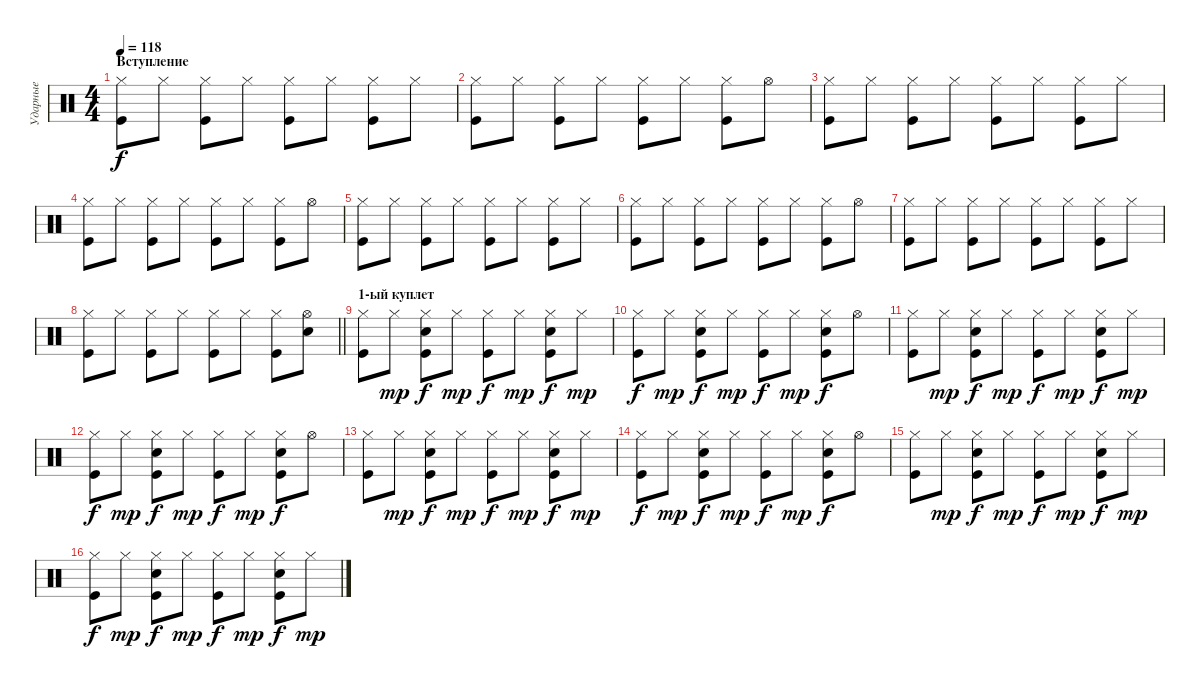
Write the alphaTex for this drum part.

\track ("Ударные" "Ударные") {instrument percussion}
\staff {score}
\articulation defaults
\ts (4 4)
\section ("" "Вступление")
\tempo 118
\clef neutral
\ks c
("Hi-Hat (closed)" "Kick (hit)").8{dy f} "Hi-Hat (closed)".8 ("Hi-Hat (closed)" "Kick (hit)").8 "Hi-Hat (closed)".8 ("Hi-Hat (closed)" "Kick (hit)").8 "Hi-Hat (closed)".8 ("Hi-Hat (closed)" "Kick (hit)").8 "Hi-Hat (closed)".8 |
("Hi-Hat (closed)" "Kick (hit)").8 "Hi-Hat (closed)".8 ("Hi-Hat (closed)" "Kick (hit)").8 "Hi-Hat (closed)".8 ("Hi-Hat (closed)" "Kick (hit)").8 "Hi-Hat (closed)".8 ("Hi-Hat (closed)" "Kick (hit)").8 "Hi-Hat (open)".8 |
("Hi-Hat (closed)" "Kick (hit)").8 "Hi-Hat (closed)".8 ("Hi-Hat (closed)" "Kick (hit)").8 "Hi-Hat (closed)".8 ("Hi-Hat (closed)" "Kick (hit)").8 "Hi-Hat (closed)".8 ("Hi-Hat (closed)" "Kick (hit)").8 "Hi-Hat (closed)".8 |
("Hi-Hat (closed)" "Kick (hit)").8 "Hi-Hat (closed)".8 ("Hi-Hat (closed)" "Kick (hit)").8 "Hi-Hat (closed)".8 ("Hi-Hat (closed)" "Kick (hit)").8 "Hi-Hat (closed)".8 ("Hi-Hat (closed)" "Kick (hit)").8 "Hi-Hat (open)".8 |
("Hi-Hat (closed)" "Kick (hit)").8 "Hi-Hat (closed)".8 ("Hi-Hat (closed)" "Kick (hit)").8 "Hi-Hat (closed)".8 ("Hi-Hat (closed)" "Kick (hit)").8 "Hi-Hat (closed)".8 ("Hi-Hat (closed)" "Kick (hit)").8 "Hi-Hat (closed)".8 |
("Hi-Hat (closed)" "Kick (hit)").8 "Hi-Hat (closed)".8 ("Hi-Hat (closed)" "Kick (hit)").8 "Hi-Hat (closed)".8 ("Hi-Hat (closed)" "Kick (hit)").8 "Hi-Hat (closed)".8 ("Hi-Hat (closed)" "Kick (hit)").8 "Hi-Hat (open)".8 |
("Hi-Hat (closed)" "Kick (hit)").8 "Hi-Hat (closed)".8 ("Hi-Hat (closed)" "Kick (hit)").8 "Hi-Hat (closed)".8 ("Hi-Hat (closed)" "Kick (hit)").8 "Hi-Hat (closed)".8 ("Hi-Hat (closed)" "Kick (hit)").8 "Hi-Hat (closed)".8 |
\barLineRight lightlight
("Hi-Hat (closed)" "Kick (hit)").8 "Hi-Hat (closed)".8 ("Hi-Hat (closed)" "Kick (hit)").8 "Hi-Hat (closed)".8 ("Hi-Hat (closed)" "Kick (hit)").8 "Hi-Hat (closed)".8 ("Hi-Hat (closed)" "Kick (hit)").8 ("Hi-Hat (open)" "Electric Snare (hit)").8 |
\section ("" "1-ый куплет")
("Hi-Hat (closed)" "Kick (hit)").8 "Hi-Hat (closed)".8{dy mp} ("Hi-Hat (closed)" "Kick (hit)" "Electric Snare (hit)").8{dy f} "Hi-Hat (closed)".8{dy mp} ("Hi-Hat (closed)" "Kick (hit)").8{dy f} "Hi-Hat (closed)".8{dy mp} ("Hi-Hat (closed)" "Kick (hit)" "Electric Snare (hit)").8{dy f} "Hi-Hat (closed)".8{dy mp} |
("Hi-Hat (closed)" "Kick (hit)").8{dy f} "Hi-Hat (closed)".8{dy mp} ("Hi-Hat (closed)" "Kick (hit)" "Electric Snare (hit)").8{dy f} "Hi-Hat (closed)".8{dy mp} ("Hi-Hat (closed)" "Kick (hit)").8{dy f} "Hi-Hat (closed)".8{dy mp} ("Hi-Hat (closed)" "Kick (hit)" "Electric Snare (hit)").8{dy f} "Hi-Hat (open)".8 |
("Hi-Hat (closed)" "Kick (hit)").8 "Hi-Hat (closed)".8{dy mp} ("Hi-Hat (closed)" "Kick (hit)" "Electric Snare (hit)").8{dy f} "Hi-Hat (closed)".8{dy mp} ("Hi-Hat (closed)" "Kick (hit)").8{dy f} "Hi-Hat (closed)".8{dy mp} ("Hi-Hat (closed)" "Kick (hit)" "Electric Snare (hit)").8{dy f} "Hi-Hat (closed)".8{dy mp} |
("Hi-Hat (closed)" "Kick (hit)").8{dy f} "Hi-Hat (closed)".8{dy mp} ("Hi-Hat (closed)" "Kick (hit)" "Electric Snare (hit)").8{dy f} "Hi-Hat (closed)".8{dy mp} ("Hi-Hat (closed)" "Kick (hit)").8{dy f} "Hi-Hat (closed)".8{dy mp} ("Hi-Hat (closed)" "Kick (hit)" "Electric Snare (hit)").8{dy f} "Hi-Hat (open)".8 |
("Hi-Hat (closed)" "Kick (hit)").8 "Hi-Hat (closed)".8{dy mp} ("Hi-Hat (closed)" "Kick (hit)" "Electric Snare (hit)").8{dy f} "Hi-Hat (closed)".8{dy mp} ("Hi-Hat (closed)" "Kick (hit)").8{dy f} "Hi-Hat (closed)".8{dy mp} ("Hi-Hat (closed)" "Kick (hit)" "Electric Snare (hit)").8{dy f} "Hi-Hat (closed)".8{dy mp} |
("Hi-Hat (closed)" "Kick (hit)").8{dy f} "Hi-Hat (closed)".8{dy mp} ("Hi-Hat (closed)" "Kick (hit)" "Electric Snare (hit)").8{dy f} "Hi-Hat (closed)".8{dy mp} ("Hi-Hat (closed)" "Kick (hit)").8{dy f} "Hi-Hat (closed)".8{dy mp} ("Hi-Hat (closed)" "Kick (hit)" "Electric Snare (hit)").8{dy f} "Hi-Hat (open)".8 |
("Hi-Hat (closed)" "Kick (hit)").8 "Hi-Hat (closed)".8{dy mp} ("Hi-Hat (closed)" "Kick (hit)" "Electric Snare (hit)").8{dy f} "Hi-Hat (closed)".8{dy mp} ("Hi-Hat (closed)" "Kick (hit)").8{dy f} "Hi-Hat (closed)".8{dy mp} ("Hi-Hat (closed)" "Kick (hit)" "Electric Snare (hit)").8{dy f} "Hi-Hat (closed)".8{dy mp} |
("Hi-Hat (closed)" "Kick (hit)").8{dy f} "Hi-Hat (closed)".8{dy mp} ("Hi-Hat (closed)" "Kick (hit)" "Electric Snare (hit)").8{dy f} "Hi-Hat (closed)".8{dy mp} ("Hi-Hat (closed)" "Kick (hit)").8{dy f} "Hi-Hat (closed)".8{dy mp} ("Hi-Hat (closed)" "Kick (hit)" "Electric Snare (hit)").8{dy f} "Hi-Hat (closed)".8{dy mp}
